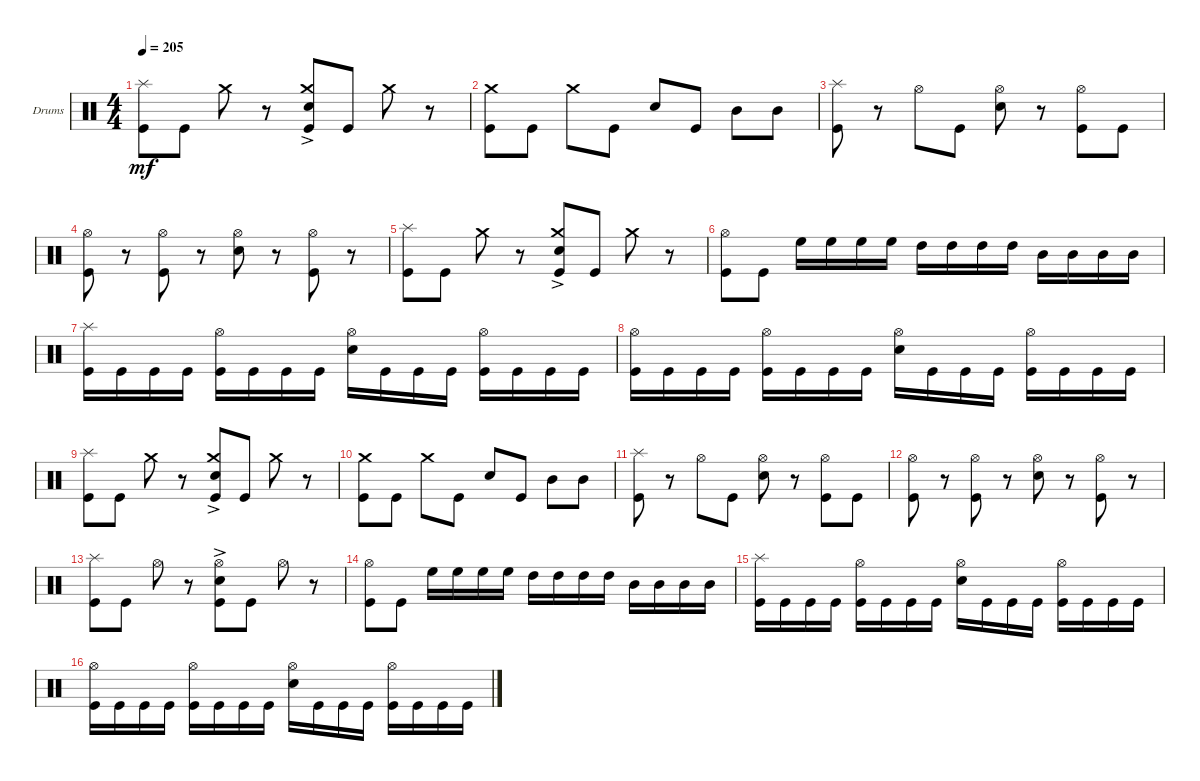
\defaultSystemsLayout 4
\bracketExtendMode groupsimilarinstruments
\firstSystemTrackNameOrientation horizontal
\otherSystemsTrackNameOrientation horizontal
\track ("Drumkit" "Drums") {instrument percussion}
\staff {score}
\articulation defaults
\ts (4 4)
\tempo 205
\clef neutral
\ks c
("Kick (hit)" "Splash (hit)").8{dy mf} "Kick (hit)".8 "Crash medium (hit)".8 r.8 ("Snare (hit) 2"{ac} "Kick (hit)" "Crash medium (hit)").8 "Kick (hit)".8 "Crash medium (hit)".8 r.8 |
("Kick (hit)" "Crash medium (hit)").8 "Kick (hit)".8 "Crash medium (hit)".8 "Kick (hit)".8 "Snare (hit) 2".8 "Kick (hit)".8 "Mid Tom (hit)".8 "Mid Tom (hit)".8 |
("Kick (hit)" "Splash (hit)").8 r.8 "Hi-Hat (open)".8 "Kick (hit)".8 ("Snare (hit) 2" "Hi-Hat (open)").8 r.8 ("Kick (hit)" "Hi-Hat (open)").8 "Kick (hit)".8 |
("Kick (hit)" "Hi-Hat (open)").8 r.8 ("Kick (hit)" "Hi-Hat (open)").8 r.8 ("Snare (hit) 2" "Hi-Hat (open)").8 r.8 ("Kick (hit)" "Hi-Hat (open)").8 r.8 |
("Kick (hit)" "Splash (hit)").8 "Kick (hit)".8 "Crash medium (hit)".8 r.8 ("Snare (hit) 2"{ac} "Kick (hit)" "Crash medium (hit)").8 "Kick (hit)".8 "Crash medium (hit)".8 r.8 |
("Kick (hit)" "Hi-Hat (open)").8 "Kick (hit)".8 "High Floor Tom (hit)".16 "High Floor Tom (hit)".16 "High Floor Tom (hit)".16 "High Floor Tom (hit)".16 "High Tom (hit)".16 "High Tom (hit)".16 "High Tom (hit)".16 "High Tom (hit)".16 "Mid Tom (hit)".16 "Mid Tom (hit)".16 "Mid Tom (hit)".16 "Mid Tom (hit)".16 |
("Kick (hit)" "Splash (hit)").16 "Kick (hit)".16 "Kick (hit)".16 "Kick (hit)".16 ("Kick (hit)" "Hi-Hat (open)").16 "Kick (hit)".16 "Kick (hit)".16 "Kick (hit)".16 ("Snare (hit) 2" "Hi-Hat (open)").16 "Kick (hit)".16 "Kick (hit)".16 "Kick (hit)".16 ("Kick (hit)" "Hi-Hat (open)").16 "Kick (hit)".16 "Kick (hit)".16 "Kick (hit)".16 |
("Kick (hit)" "Hi-Hat (open)").16 "Kick (hit)".16 "Kick (hit)".16 "Kick (hit)".16 ("Kick (hit)" "Hi-Hat (open)").16 "Kick (hit)".16 "Kick (hit)".16 "Kick (hit)".16 ("Snare (hit) 2" "Hi-Hat (open)").16 "Kick (hit)".16 "Kick (hit)".16 "Kick (hit)".16 ("Kick (hit)" "Hi-Hat (open)").16 "Kick (hit)".16 "Kick (hit)".16 "Kick (hit)".16 |
("Kick (hit)" "Splash (hit)").8 "Kick (hit)".8 "Crash medium (hit)".8 r.8 ("Snare (hit) 2"{ac} "Kick (hit)" "Crash medium (hit)").8 "Kick (hit)".8 "Crash medium (hit)".8 r.8 |
("Kick (hit)" "Crash medium (hit)").8 "Kick (hit)".8 "Crash medium (hit)".8 "Kick (hit)".8 "Snare (hit) 2".8 "Kick (hit)".8 "Mid Tom (hit)".8 "Mid Tom (hit)".8 |
("Kick (hit)" "Splash (hit)").8 r.8 "Hi-Hat (open)".8 "Kick (hit)".8 ("Snare (hit) 2" "Hi-Hat (open)").8 r.8 ("Kick (hit)" "Hi-Hat (open)").8 "Kick (hit)".8 |
("Kick (hit)" "Hi-Hat (open)").8 r.8 ("Kick (hit)" "Hi-Hat (open)").8 r.8 ("Snare (hit) 2" "Hi-Hat (open)").8 r.8 ("Kick (hit)" "Hi-Hat (open)").8 r.8 |
("Kick (hit)" "Splash (hit)").8 "Kick (hit)".8 "Hi-Hat (open)".8 r.8 ("Snare (hit) 2"{ac} "Kick (hit)" "Hi-Hat (open)").8 "Kick (hit)".8 "Hi-Hat (open)".8 r.8 |
("Kick (hit)" "Hi-Hat (open)").8 "Kick (hit)".8 "High Floor Tom (hit)".16 "High Floor Tom (hit)".16 "High Floor Tom (hit)".16 "High Floor Tom (hit)".16 "High Tom (hit)".16 "High Tom (hit)".16 "High Tom (hit)".16 "High Tom (hit)".16 "Mid Tom (hit)".16 "Mid Tom (hit)".16 "Mid Tom (hit)".16 "Mid Tom (hit)".16 |
("Kick (hit)" "Splash (hit)").16 "Kick (hit)".16 "Kick (hit)".16 "Kick (hit)".16 ("Kick (hit)" "Hi-Hat (open)").16 "Kick (hit)".16 "Kick (hit)".16 "Kick (hit)".16 ("Snare (hit) 2" "Hi-Hat (open)").16 "Kick (hit)".16 "Kick (hit)".16 "Kick (hit)".16 ("Kick (hit)" "Hi-Hat (open)").16 "Kick (hit)".16 "Kick (hit)".16 "Kick (hit)".16 |
("Kick (hit)" "Hi-Hat (open)").16 "Kick (hit)".16 "Kick (hit)".16 "Kick (hit)".16 ("Kick (hit)" "Hi-Hat (open)").16 "Kick (hit)".16 "Kick (hit)".16 "Kick (hit)".16 ("Snare (hit) 2" "Hi-Hat (open)").16 "Kick (hit)".16 "Kick (hit)".16 "Kick (hit)".16 ("Kick (hit)" "Hi-Hat (open)").16 "Kick (hit)".16 "Kick (hit)".16 "Kick (hit)".16
